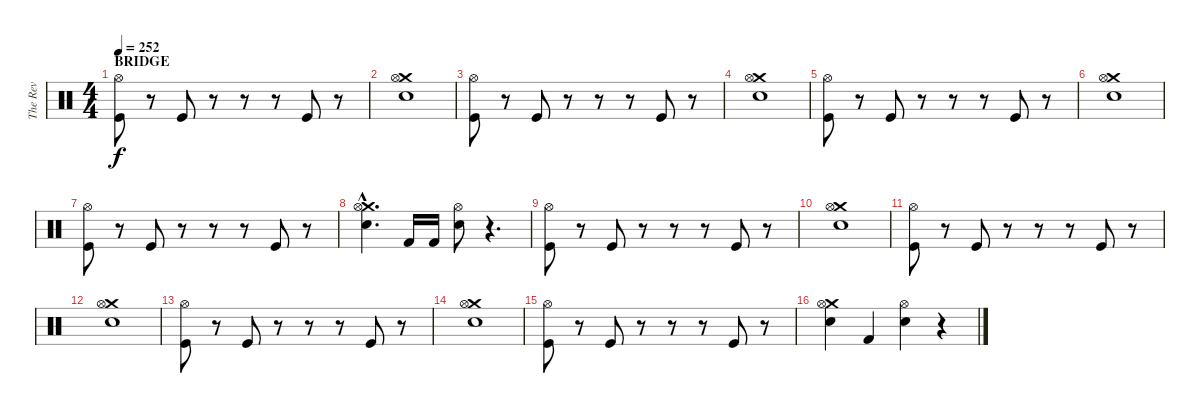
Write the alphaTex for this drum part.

\track ("The Rev" "The Rev") {instrument percussion}
\staff {score}
\articulation defaults
\ts (4 4)
\section ("" "BRIDGE")
\tempo 252
\clef neutral
\ks c
("Hi-Hat (open)" "Kick (hit)").8{dy f} r.8 "Kick (hit)".8 r.8 r.8 r.8 "Kick (hit)".8 r.8 |
("Crash medium (hit)" "Hi-Hat (open)" "Electric Snare (hit)").1 |
("Hi-Hat (open)" "Kick (hit)").8 r.8 "Kick (hit)".8 r.8 r.8 r.8 "Kick (hit)".8 r.8 |
("Crash medium (hit)" "Hi-Hat (open)" "Electric Snare (hit)").1 |
("Hi-Hat (open)" "Kick (hit)").8 r.8 "Kick (hit)".8 r.8 r.8 r.8 "Kick (hit)".8 r.8 |
("Crash medium (hit)" "Hi-Hat (open)" "Electric Snare (hit)").1 |
("Hi-Hat (open)" "Kick (hit)").8 r.8 "Kick (hit)".8 r.8 r.8 r.8 "Kick (hit)".8 r.8 |
("Crash medium (hit)"{hac} "Hi-Hat (open)"{hac} "Electric Snare (hit)"{hac}).4{d} "Kick (hit) 2".16 "Kick (hit) 2".16 ("Hi-Hat (open)" "Electric Snare (hit)").8 r.4{d} |
("Hi-Hat (open)" "Kick (hit)").8 r.8 "Kick (hit)".8 r.8 r.8 r.8 "Kick (hit)".8 r.8 |
("Crash medium (hit)" "Hi-Hat (open)" "Electric Snare (hit)").1 |
("Hi-Hat (open)" "Kick (hit)").8 r.8 "Kick (hit)".8 r.8 r.8 r.8 "Kick (hit)".8 r.8 |
("Crash medium (hit)" "Hi-Hat (open)" "Electric Snare (hit)").1 |
("Hi-Hat (open)" "Kick (hit)").8 r.8 "Kick (hit)".8 r.8 r.8 r.8 "Kick (hit)".8 r.8 |
("Crash medium (hit)" "Hi-Hat (open)" "Electric Snare (hit)").1 |
("Hi-Hat (open)" "Kick (hit)").8 r.8 "Kick (hit)".8 r.8 r.8 r.8 "Kick (hit)".8 r.8 |
("Crash medium (hit)" "Hi-Hat (open)" "Electric Snare (hit)").4 "Kick (hit) 2".4 ("Hi-Hat (open)" "Electric Snare (hit)").4 r.4
